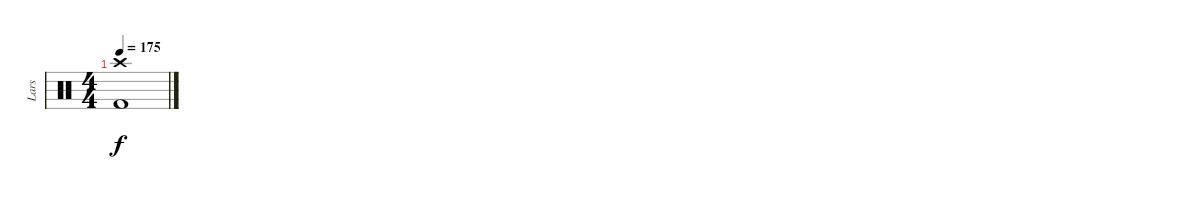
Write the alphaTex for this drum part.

\track ("Lars" "Lars") {instrument percussion}
\staff {score}
\articulation defaults
\ts (4 4)
\tempo 175
\clef neutral
\ks c
("Crash high (hit)" "Kick (hit) 2").1{dy f}
